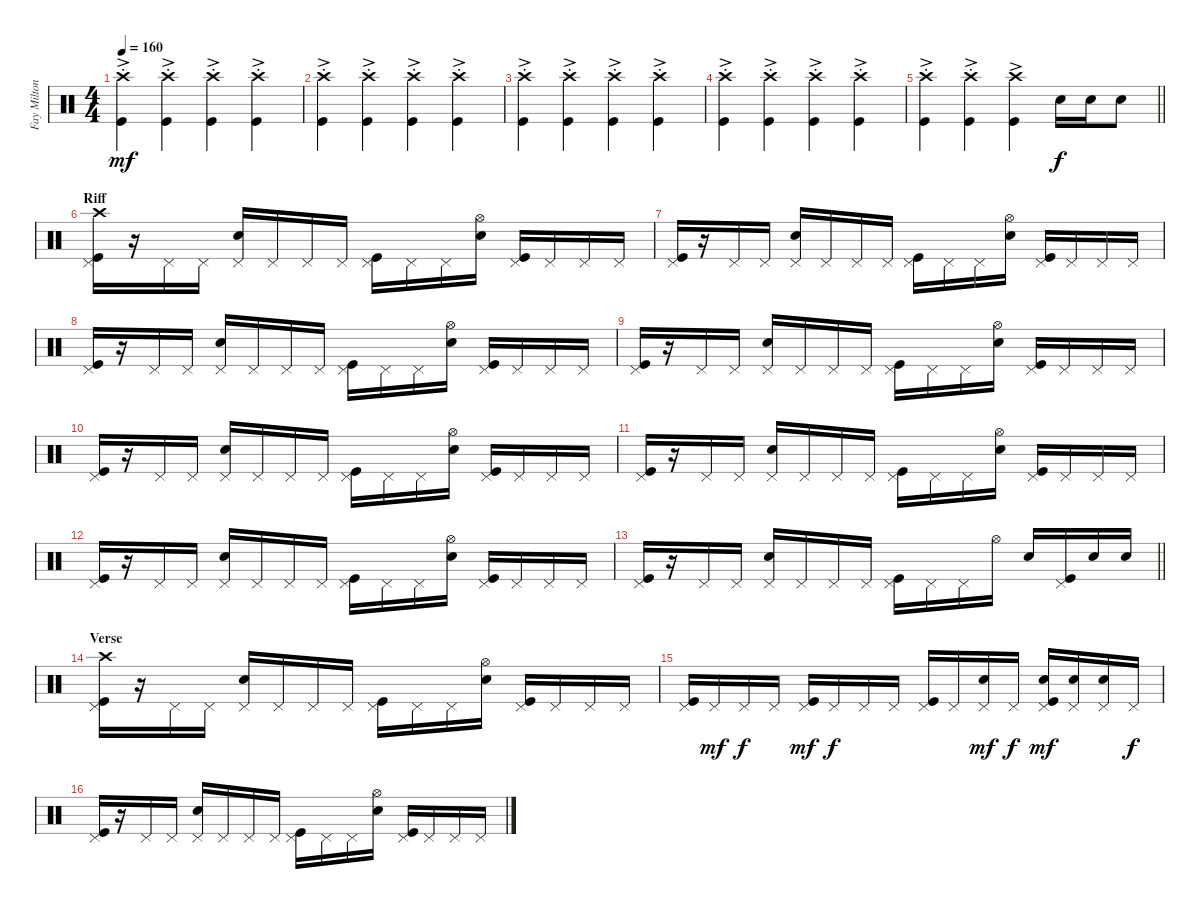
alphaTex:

\track ("Fay Milton - Drums" "Fay Milton") {instrument percussion}
\staff {score}
\articulation defaults
\ts (4 4)
\tempo 160
\clef neutral
\ks c
("Crash high (hit)"{ac st} "Kick (hit)"{st}).4{dy mf} ("Crash high (hit)"{ac st} "Kick (hit)"{st}).4 ("Crash high (hit)"{ac st} "Kick (hit)"{st}).4 ("Crash high (hit)"{ac st} "Kick (hit)"{st}).4 |
("Crash high (hit)"{ac st} "Kick (hit)"{st}).4 ("Crash high (hit)"{ac st} "Kick (hit)"{st}).4 ("Crash high (hit)"{ac st} "Kick (hit)"{st}).4 ("Crash high (hit)"{ac st} "Kick (hit)"{st}).4 |
("Crash high (hit)"{ac st} "Kick (hit)"{st}).4 ("Crash high (hit)"{ac st} "Kick (hit)"{st}).4 ("Crash high (hit)"{ac st} "Kick (hit)"{st}).4 ("Crash high (hit)"{ac st} "Kick (hit)"{st}).4 |
("Crash high (hit)"{ac st} "Kick (hit)"{st}).4 ("Crash high (hit)"{ac st} "Kick (hit)"{st}).4 ("Crash high (hit)"{ac st} "Kick (hit)"{st}).4 ("Crash high (hit)"{ac st} "Kick (hit)"{st}).4 |
\barLineRight lightlight
("Crash high (hit)"{ac st} "Kick (hit)"{st}).4 ("Crash high (hit)"{ac st} "Kick (hit)"{st}).4 ("Crash high (hit)"{ac} "Kick (hit)").4 "Snare (hit) 2".16{dy f} "Snare (hit) 2".16 "Snare (hit) 2".8 |
\section ("" "Riff")
("Crash high (hit)" "Pedal Hi-Hat (hit)" "Kick (hit)").16 r.16 "Pedal Hi-Hat (hit)".16 "Pedal Hi-Hat (hit)".16 ("Pedal Hi-Hat (hit)" "Snare (hit) 2").16 "Pedal Hi-Hat (hit)".16 "Pedal Hi-Hat (hit)".16 "Pedal Hi-Hat (hit)".16 ("Pedal Hi-Hat (hit)" "Kick (hit)").16 "Pedal Hi-Hat (hit)".16 "Pedal Hi-Hat (hit)".16 ("Hi-Hat (open)" "Snare (hit) 2").16 ("Pedal Hi-Hat (hit)" "Kick (hit)").16 "Pedal Hi-Hat (hit)".16 "Pedal Hi-Hat (hit)".16 "Pedal Hi-Hat (hit)".16 |
("Pedal Hi-Hat (hit)" "Kick (hit)").16 r.16 "Pedal Hi-Hat (hit)".16 "Pedal Hi-Hat (hit)".16 ("Pedal Hi-Hat (hit)" "Snare (hit) 2").16 "Pedal Hi-Hat (hit)".16 "Pedal Hi-Hat (hit)".16 "Pedal Hi-Hat (hit)".16 ("Pedal Hi-Hat (hit)" "Kick (hit)").16 "Pedal Hi-Hat (hit)".16 "Pedal Hi-Hat (hit)".16 ("Hi-Hat (open)" "Snare (hit) 2").16 ("Pedal Hi-Hat (hit)" "Kick (hit)").16 "Pedal Hi-Hat (hit)".16 "Pedal Hi-Hat (hit)".16 "Pedal Hi-Hat (hit)".16 |
("Pedal Hi-Hat (hit)" "Kick (hit)").16 r.16 "Pedal Hi-Hat (hit)".16 "Pedal Hi-Hat (hit)".16 ("Pedal Hi-Hat (hit)" "Snare (hit) 2").16 "Pedal Hi-Hat (hit)".16 "Pedal Hi-Hat (hit)".16 "Pedal Hi-Hat (hit)".16 ("Pedal Hi-Hat (hit)" "Kick (hit)").16 "Pedal Hi-Hat (hit)".16 "Pedal Hi-Hat (hit)".16 ("Hi-Hat (open)" "Snare (hit) 2").16 ("Pedal Hi-Hat (hit)" "Kick (hit)").16 "Pedal Hi-Hat (hit)".16 "Pedal Hi-Hat (hit)".16 "Pedal Hi-Hat (hit)".16 |
("Pedal Hi-Hat (hit)" "Kick (hit)").16 r.16 "Pedal Hi-Hat (hit)".16 "Pedal Hi-Hat (hit)".16 ("Pedal Hi-Hat (hit)" "Snare (hit) 2").16 "Pedal Hi-Hat (hit)".16 "Pedal Hi-Hat (hit)".16 "Pedal Hi-Hat (hit)".16 ("Pedal Hi-Hat (hit)" "Kick (hit)").16 "Pedal Hi-Hat (hit)".16 "Pedal Hi-Hat (hit)".16 ("Hi-Hat (open)" "Snare (hit) 2").16 ("Pedal Hi-Hat (hit)" "Kick (hit)").16 "Pedal Hi-Hat (hit)".16 "Pedal Hi-Hat (hit)".16 "Pedal Hi-Hat (hit)".16 |
("Pedal Hi-Hat (hit)" "Kick (hit)").16 r.16 "Pedal Hi-Hat (hit)".16 "Pedal Hi-Hat (hit)".16 ("Pedal Hi-Hat (hit)" "Snare (hit) 2").16 "Pedal Hi-Hat (hit)".16 "Pedal Hi-Hat (hit)".16 "Pedal Hi-Hat (hit)".16 ("Pedal Hi-Hat (hit)" "Kick (hit)").16 "Pedal Hi-Hat (hit)".16 "Pedal Hi-Hat (hit)".16 ("Hi-Hat (open)" "Snare (hit) 2").16 ("Pedal Hi-Hat (hit)" "Kick (hit)").16 "Pedal Hi-Hat (hit)".16 "Pedal Hi-Hat (hit)".16 "Pedal Hi-Hat (hit)".16 |
("Pedal Hi-Hat (hit)" "Kick (hit)").16 r.16 "Pedal Hi-Hat (hit)".16 "Pedal Hi-Hat (hit)".16 ("Pedal Hi-Hat (hit)" "Snare (hit) 2").16 "Pedal Hi-Hat (hit)".16 "Pedal Hi-Hat (hit)".16 "Pedal Hi-Hat (hit)".16 ("Pedal Hi-Hat (hit)" "Kick (hit)").16 "Pedal Hi-Hat (hit)".16 "Pedal Hi-Hat (hit)".16 ("Hi-Hat (open)" "Snare (hit) 2").16 ("Pedal Hi-Hat (hit)" "Kick (hit)").16 "Pedal Hi-Hat (hit)".16 "Pedal Hi-Hat (hit)".16 "Pedal Hi-Hat (hit)".16 |
("Pedal Hi-Hat (hit)" "Kick (hit)").16 r.16 "Pedal Hi-Hat (hit)".16 "Pedal Hi-Hat (hit)".16 ("Pedal Hi-Hat (hit)" "Snare (hit) 2").16 "Pedal Hi-Hat (hit)".16 "Pedal Hi-Hat (hit)".16 "Pedal Hi-Hat (hit)".16 ("Pedal Hi-Hat (hit)" "Kick (hit)").16 "Pedal Hi-Hat (hit)".16 "Pedal Hi-Hat (hit)".16 ("Hi-Hat (open)" "Snare (hit) 2").16 ("Pedal Hi-Hat (hit)" "Kick (hit)").16 "Pedal Hi-Hat (hit)".16 "Pedal Hi-Hat (hit)".16 "Pedal Hi-Hat (hit)".16 |
\barLineRight lightlight
("Pedal Hi-Hat (hit)" "Kick (hit)").16 r.16 "Pedal Hi-Hat (hit)".16 "Pedal Hi-Hat (hit)".16 ("Pedal Hi-Hat (hit)" "Snare (hit) 2").16 "Pedal Hi-Hat (hit)".16 "Pedal Hi-Hat (hit)".16 "Pedal Hi-Hat (hit)".16 ("Pedal Hi-Hat (hit)" "Kick (hit)").16 "Pedal Hi-Hat (hit)".16 "Pedal Hi-Hat (hit)".16 "Hi-Hat (open)".16 "Snare (hit) 2".16 ("Pedal Hi-Hat (hit)" "Kick (hit)").16 "Snare (hit) 2".16 "Snare (hit) 2".16 |
\section ("" "Verse")
("Crash high (hit)" "Pedal Hi-Hat (hit)" "Kick (hit)").16 r.16 "Pedal Hi-Hat (hit)".16 "Pedal Hi-Hat (hit)".16 ("Pedal Hi-Hat (hit)" "Snare (hit) 2").16 "Pedal Hi-Hat (hit)".16 "Pedal Hi-Hat (hit)".16 "Pedal Hi-Hat (hit)".16 ("Pedal Hi-Hat (hit)" "Kick (hit)").16 "Pedal Hi-Hat (hit)".16 "Pedal Hi-Hat (hit)".16 ("Hi-Hat (open)" "Snare (hit) 2").16 ("Pedal Hi-Hat (hit)" "Kick (hit)").16 "Pedal Hi-Hat (hit)".16 "Pedal Hi-Hat (hit)".16 "Pedal Hi-Hat (hit)".16 |
("Pedal Hi-Hat (hit)" "Kick (hit)").16 "Pedal Hi-Hat (hit)".16{dy mf} "Pedal Hi-Hat (hit)".16{dy f} "Pedal Hi-Hat (hit)".16 ("Pedal Hi-Hat (hit)" "Kick (hit)").16{dy mf} "Pedal Hi-Hat (hit)".16{dy f} "Pedal Hi-Hat (hit)".16 "Pedal Hi-Hat (hit)".16 ("Pedal Hi-Hat (hit)" "Kick (hit)").16 "Pedal Hi-Hat (hit)".16 ("Pedal Hi-Hat (hit)" "Snare (hit) 2").16{dy mf} "Pedal Hi-Hat (hit)".16{dy f} ("Pedal Hi-Hat (hit)" "Snare (hit) 2" "Kick (hit)").16{dy mf} ("Pedal Hi-Hat (hit)" "Snare (hit) 2").16 ("Pedal Hi-Hat (hit)" "Snare (hit) 2").16 "Pedal Hi-Hat (hit)".16{dy f} |
("Pedal Hi-Hat (hit)" "Kick (hit)").16 r.16 "Pedal Hi-Hat (hit)".16 "Pedal Hi-Hat (hit)".16 ("Pedal Hi-Hat (hit)" "Snare (hit) 2").16 "Pedal Hi-Hat (hit)".16 "Pedal Hi-Hat (hit)".16 "Pedal Hi-Hat (hit)".16 ("Pedal Hi-Hat (hit)" "Kick (hit)").16 "Pedal Hi-Hat (hit)".16 "Pedal Hi-Hat (hit)".16 ("Hi-Hat (open)" "Snare (hit) 2").16 ("Pedal Hi-Hat (hit)" "Kick (hit)").16 "Pedal Hi-Hat (hit)".16 "Pedal Hi-Hat (hit)".16 "Pedal Hi-Hat (hit)".16
